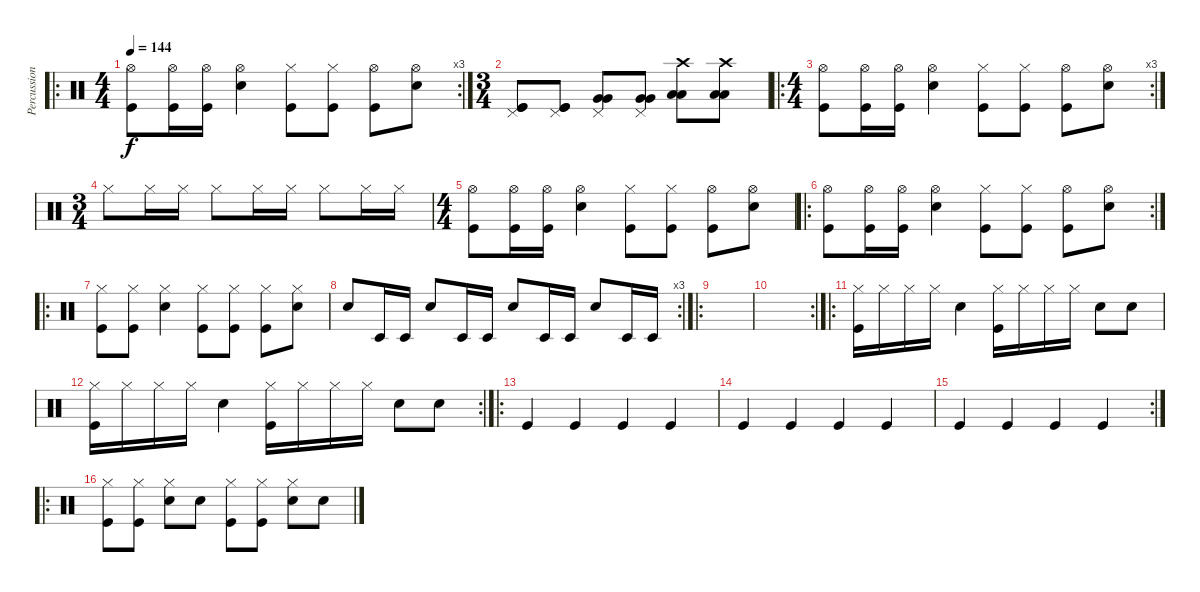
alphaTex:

\track ("Percussion" "Percussion") {instrument percussion}
\staff {score}
\articulation defaults
\ro
\rc 3
\ts (4 4)
\tempo 144
\clef neutral
\ks c
("Hi-Hat (open)" "Kick (hit)").8{dy f} ("Hi-Hat (open)" "Kick (hit)").16 ("Hi-Hat (open)" "Kick (hit)").16 ("Hi-Hat (open)" "Snare (hit) 2").4 ("Hi-Hat (closed)" "Kick (hit)").8 ("Hi-Hat (closed)" "Kick (hit)").8 ("Hi-Hat (open)" "Kick (hit)").8 ("Hi-Hat (open)" "Snare (hit) 2").8 |
\ts (3 4)
("Pedal Hi-Hat (hit)" "Kick (hit)" "Kick (hit)").8 ("Pedal Hi-Hat (hit)" "Kick (hit)" "Kick (hit)").8 ("Pedal Hi-Hat (hit)" "Very Low Tom (hit)" "Very Low Tom (hit)").8 ("Pedal Hi-Hat (hit)" "Very Low Tom (hit)" "Very Low Tom (hit)").8 ("Crash high (hit)" "Low Tom (hit)" "Low Tom (hit)").8 ("Crash high (hit)" "Low Tom (hit)" "Low Tom (hit)").8 |
\ro
\rc 3
\ts (4 4)
("Hi-Hat (open)" "Kick (hit)").8 ("Hi-Hat (open)" "Kick (hit)").16 ("Hi-Hat (open)" "Kick (hit)").16 ("Hi-Hat (open)" "Snare (hit) 2").4 ("Hi-Hat (closed)" "Kick (hit)").8 ("Hi-Hat (closed)" "Kick (hit)").8 ("Hi-Hat (open)" "Kick (hit)").8 ("Hi-Hat (open)" "Snare (hit) 2").8 |
\ts (3 4)
"Hi-Hat (closed)".8 "Hi-Hat (closed)".16 "Hi-Hat (closed)".16 "Hi-Hat (closed)".8 "Hi-Hat (closed)".16 "Hi-Hat (closed)".16 "Hi-Hat (closed)".8 "Hi-Hat (closed)".16 "Hi-Hat (closed)".16 |
\ts (4 4)
("Hi-Hat (open)" "Kick (hit)").8 ("Hi-Hat (open)" "Kick (hit)").16 ("Hi-Hat (open)" "Kick (hit)").16 ("Hi-Hat (open)" "Snare (hit) 2").4 ("Hi-Hat (closed)" "Kick (hit)").8 ("Hi-Hat (closed)" "Kick (hit)").8 ("Hi-Hat (open)" "Kick (hit)").8 ("Hi-Hat (open)" "Snare (hit) 2").8 |
\ro
\rc 2
("Hi-Hat (open)" "Kick (hit)").8 ("Hi-Hat (open)" "Kick (hit)").16 ("Hi-Hat (open)" "Kick (hit)").16 ("Hi-Hat (open)" "Snare (hit) 2").4 ("Hi-Hat (closed)" "Kick (hit)").8 ("Hi-Hat (closed)" "Kick (hit)").8 ("Hi-Hat (open)" "Kick (hit)").8 ("Hi-Hat (open)" "Snare (hit) 2").8 |
\ro
("Hi-Hat (closed)" "Kick (hit)").8 ("Hi-Hat (closed)" "Kick (hit)").8 ("Hi-Hat (closed)" "Snare (hit) 2").4 ("Hi-Hat (closed)" "Kick (hit)").8 ("Hi-Hat (closed)" "Kick (hit)").8 ("Hi-Hat (closed)" "Kick (hit)").8 ("Hi-Hat (closed)" "Snare (hit) 2").8 |
\rc 3 "Snare (hit) 2".8 "Timbale low (hit)".16 "Timbale low (hit)".16 "Snare (hit) 2".8 "Timbale low (hit)".16 "Timbale low (hit)".16 "Snare (hit) 2".8 "Timbale low (hit)".16 "Timbale low (hit)".16 "Snare (hit) 2".8 "Timbale low (hit)".16 "Timbale low (hit)".16
|
\ro
|
\rc 2
|
\ro
("Kick (hit)" "Hi-Hat (closed)").16 "Hi-Hat (closed)".16 "Hi-Hat (closed)".16 "Hi-Hat (closed)".16 "Snare (hit) 2".4 ("Kick (hit)" "Hi-Hat (closed)").16 "Hi-Hat (closed)".16 "Hi-Hat (closed)".16 "Hi-Hat (closed)".16 "Snare (hit) 2".8 "Snare (hit) 2".8 |
\rc 2
("Kick (hit)" "Hi-Hat (closed)").16 "Hi-Hat (closed)".16 "Hi-Hat (closed)".16 "Hi-Hat (closed)".16 "Snare (hit) 2".4 ("Kick (hit)" "Hi-Hat (closed)").16 "Hi-Hat (closed)".16 "Hi-Hat (closed)".16 "Hi-Hat (closed)".16 "Snare (hit) 2".8 "Snare (hit) 2".8 |
\ro "Kick (hit)".4 "Kick (hit)".4 "Kick (hit)".4 "Kick (hit)".4
|
"Kick (hit)".4 "Kick (hit)".4 "Kick (hit)".4 "Kick (hit)".4 |
\rc 2 "Kick (hit)".4 "Kick (hit)".4 "Kick (hit)".4 "Kick (hit)".4
|
\ro
("Hi-Hat (closed)" "Kick (hit)").8 ("Hi-Hat (closed)" "Kick (hit)").8 ("Hi-Hat (closed)" "Snare (hit) 2").8 "Snare (hit) 2".8 ("Hi-Hat (closed)" "Kick (hit)").8 ("Hi-Hat (closed)" "Kick (hit)").8 ("Hi-Hat (closed)" "Snare (hit) 2").8 "Snare (hit) 2".8
